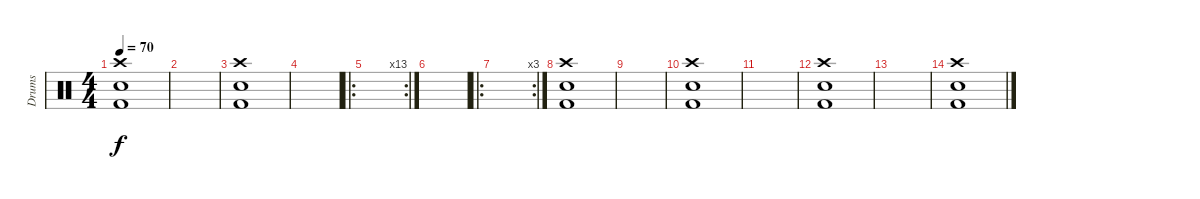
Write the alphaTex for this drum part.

\track ("Drums" "Drums") {instrument percussion}
\staff {score}
\articulation defaults
\ts (4 4)
\tempo 70
\clef neutral
\ks c
("Crash high (hit)" "Snare (hit) 2" "Kick (hit) 2").1{dy f} |
|
("Crash high (hit)" "Snare (hit) 2" "Kick (hit) 2").1 |
|
\ro
\rc 13
|
|
\ro
\rc 3
|
("Crash high (hit)" "Snare (hit) 2" "Kick (hit) 2").1 |
|
("Crash high (hit)" "Snare (hit) 2" "Kick (hit) 2").1 |
|
("Crash high (hit)" "Snare (hit) 2" "Kick (hit) 2").1 |
|
("Crash high (hit)" "Snare (hit) 2" "Kick (hit) 2").1
